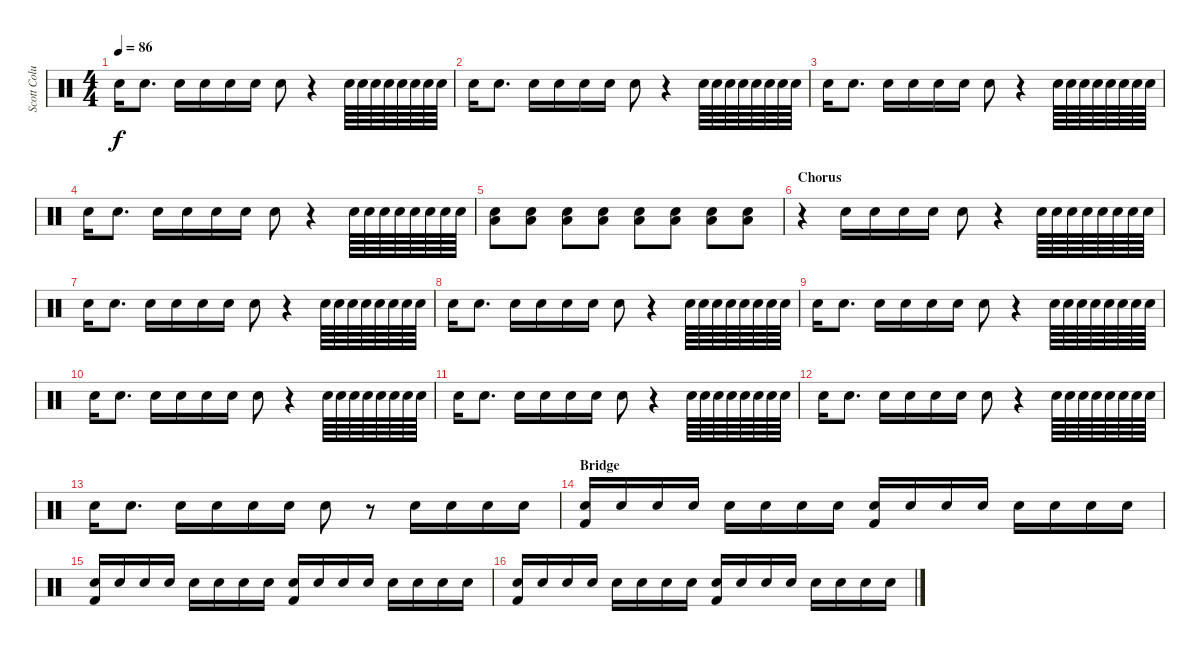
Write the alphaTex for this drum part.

\track ("Scott Columbus - Drums" "Scott Colu") {instrument percussion}
\staff {score}
\articulation defaults
\ts (4 4)
\tempo 86
\clef neutral
\ks c "Snare (hit) 2".16{dy f} "Snare (hit) 2".8{d} "Snare (hit) 2".16 "Snare (hit) 2".16 "Snare (hit) 2".16 "Snare (hit) 2".16 "Snare (hit) 2".8
r.4 "Snare (hit) 2".64 "Snare (hit) 2".64 "Snare (hit) 2".64 "Snare (hit) 2".64 "Snare (hit) 2".64 "Snare (hit) 2".64 "Snare (hit) 2".64 "Snare (hit) 2".64 |
"Snare (hit) 2".16 "Snare (hit) 2".8{d} "Snare (hit) 2".16 "Snare (hit) 2".16 "Snare (hit) 2".16 "Snare (hit) 2".16 "Snare (hit) 2".8 r.4 "Snare (hit) 2".64 "Snare (hit) 2".64 "Snare (hit) 2".64 "Snare (hit) 2".64 "Snare (hit) 2".64 "Snare (hit) 2".64 "Snare (hit) 2".64 "Snare (hit) 2".64 |
"Snare (hit) 2".16 "Snare (hit) 2".8{d} "Snare (hit) 2".16 "Snare (hit) 2".16 "Snare (hit) 2".16 "Snare (hit) 2".16 "Snare (hit) 2".8 r.4 "Snare (hit) 2".64 "Snare (hit) 2".64 "Snare (hit) 2".64 "Snare (hit) 2".64 "Snare (hit) 2".64 "Snare (hit) 2".64 "Snare (hit) 2".64 "Snare (hit) 2".64 |
"Snare (hit) 2".16 "Snare (hit) 2".8{d} "Snare (hit) 2".16 "Snare (hit) 2".16 "Snare (hit) 2".16 "Snare (hit) 2".16 "Snare (hit) 2".8 r.4 "Snare (hit) 2".64 "Snare (hit) 2".64 "Snare (hit) 2".64 "Snare (hit) 2".64 "Snare (hit) 2".64 "Snare (hit) 2".64 "Snare (hit) 2".64 "Snare (hit) 2".64 |
("Snare (hit) 2" "Low Tom (hit)").8{volume 8} ("Snare (hit) 2" "Low Tom (hit)").8 ("Snare (hit) 2" "Low Tom (hit)").8 ("Snare (hit) 2" "Low Tom (hit)").8 ("Snare (hit) 2" "Low Tom (hit)").8 ("Snare (hit) 2" "Low Tom (hit)").8 ("Snare (hit) 2" "Low Tom (hit)").8 ("Snare (hit) 2" "Low Tom (hit)").8 |
\section ("" "Chorus")
r.4 "Snare (hit) 2".16 "Snare (hit) 2".16 "Snare (hit) 2".16 "Snare (hit) 2".16 "Snare (hit) 2".8 r.4 "Snare (hit) 2".64 "Snare (hit) 2".64 "Snare (hit) 2".64 "Snare (hit) 2".64 "Snare (hit) 2".64 "Snare (hit) 2".64 "Snare (hit) 2".64 "Snare (hit) 2".64 |
"Snare (hit) 2".16 "Snare (hit) 2".8{d} "Snare (hit) 2".16 "Snare (hit) 2".16 "Snare (hit) 2".16 "Snare (hit) 2".16 "Snare (hit) 2".8 r.4 "Snare (hit) 2".64 "Snare (hit) 2".64 "Snare (hit) 2".64 "Snare (hit) 2".64 "Snare (hit) 2".64 "Snare (hit) 2".64 "Snare (hit) 2".64 "Snare (hit) 2".64 |
"Snare (hit) 2".16 "Snare (hit) 2".8{d} "Snare (hit) 2".16 "Snare (hit) 2".16 "Snare (hit) 2".16 "Snare (hit) 2".16 "Snare (hit) 2".8 r.4 "Snare (hit) 2".64 "Snare (hit) 2".64 "Snare (hit) 2".64 "Snare (hit) 2".64 "Snare (hit) 2".64 "Snare (hit) 2".64 "Snare (hit) 2".64 "Snare (hit) 2".64 |
"Snare (hit) 2".16 "Snare (hit) 2".8{d} "Snare (hit) 2".16 "Snare (hit) 2".16 "Snare (hit) 2".16 "Snare (hit) 2".16 "Snare (hit) 2".8 r.4 "Snare (hit) 2".64 "Snare (hit) 2".64 "Snare (hit) 2".64 "Snare (hit) 2".64 "Snare (hit) 2".64 "Snare (hit) 2".64 "Snare (hit) 2".64 "Snare (hit) 2".64 |
"Snare (hit) 2".16 "Snare (hit) 2".8{d} "Snare (hit) 2".16 "Snare (hit) 2".16 "Snare (hit) 2".16 "Snare (hit) 2".16 "Snare (hit) 2".8 r.4 "Snare (hit) 2".64 "Snare (hit) 2".64 "Snare (hit) 2".64 "Snare (hit) 2".64 "Snare (hit) 2".64 "Snare (hit) 2".64 "Snare (hit) 2".64 "Snare (hit) 2".64 |
"Snare (hit) 2".16 "Snare (hit) 2".8{d} "Snare (hit) 2".16 "Snare (hit) 2".16 "Snare (hit) 2".16 "Snare (hit) 2".16 "Snare (hit) 2".8 r.4 "Snare (hit) 2".64 "Snare (hit) 2".64 "Snare (hit) 2".64 "Snare (hit) 2".64 "Snare (hit) 2".64 "Snare (hit) 2".64 "Snare (hit) 2".64 "Snare (hit) 2".64 |
"Snare (hit) 2".16 "Snare (hit) 2".8{d} "Snare (hit) 2".16 "Snare (hit) 2".16 "Snare (hit) 2".16 "Snare (hit) 2".16 "Snare (hit) 2".8 r.4 "Snare (hit) 2".64 "Snare (hit) 2".64 "Snare (hit) 2".64 "Snare (hit) 2".64 "Snare (hit) 2".64 "Snare (hit) 2".64 "Snare (hit) 2".64 "Snare (hit) 2".64 |
"Snare (hit) 2".16 "Snare (hit) 2".8{d} "Snare (hit) 2".16 "Snare (hit) 2".16 "Snare (hit) 2".16 "Snare (hit) 2".16 "Snare (hit) 2".8 r.8 "Snare (hit) 2".16 "Snare (hit) 2".16 "Snare (hit) 2".16 "Snare (hit) 2".16 |
\section ("" "Bridge")
("Kick (hit) 2" "Snare (hit) 2").16{volume 7} "Snare (hit) 2".16 "Snare (hit) 2".16 "Snare (hit) 2".16 "Snare (hit) 2".16{volume 10} "Snare (hit) 2".16{volume 7} "Snare (hit) 2".16 "Snare (hit) 2".16 ("Kick (hit) 2" "Snare (hit) 2").16 "Snare (hit) 2".16 "Snare (hit) 2".16 "Snare (hit) 2".16 "Snare (hit) 2".16{volume 9} "Snare (hit) 2".16{volume 7} "Snare (hit) 2".16 "Snare (hit) 2".16 |
("Kick (hit) 2" "Snare (hit) 2").16{volume 7} "Snare (hit) 2".16 "Snare (hit) 2".16 "Snare (hit) 2".16 "Snare (hit) 2".16{volume 10} "Snare (hit) 2".16{volume 7} "Snare (hit) 2".16 "Snare (hit) 2".16 ("Kick (hit) 2" "Snare (hit) 2").16 "Snare (hit) 2".16 "Snare (hit) 2".16 "Snare (hit) 2".16 "Snare (hit) 2".16{volume 9} "Snare (hit) 2".16{volume 7} "Snare (hit) 2".16 "Snare (hit) 2".16 |
("Kick (hit) 2" "Snare (hit) 2").16{volume 7} "Snare (hit) 2".16 "Snare (hit) 2".16 "Snare (hit) 2".16 "Snare (hit) 2".16{volume 10} "Snare (hit) 2".16{volume 7} "Snare (hit) 2".16 "Snare (hit) 2".16 ("Kick (hit) 2" "Snare (hit) 2").16 "Snare (hit) 2".16 "Snare (hit) 2".16 "Snare (hit) 2".16 "Snare (hit) 2".16{volume 9} "Snare (hit) 2".16{volume 7} "Snare (hit) 2".16 "Snare (hit) 2".16
